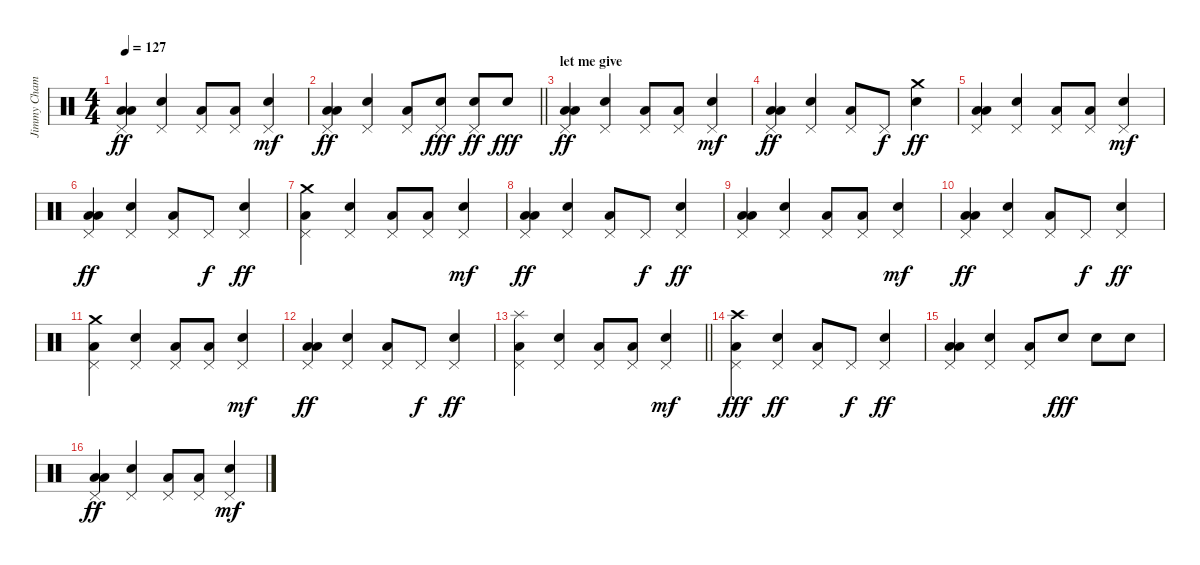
\track ("Jimmy Chamberlin" "Jimmy Cham") {instrument percussion}
\staff {score}
\articulation defaults
\ts (4 4)
\tempo 127
\clef neutral
\ks c
("Low Floor Tom (hit)" "Low Tom (hit)" "Pedal Hi-Hat (hit)").4{dy ff} ("Snare (hit) 2" "Pedal Hi-Hat (hit)").4 ("Low Floor Tom (hit)" "Pedal Hi-Hat (hit)").8 ("Low Floor Tom (hit)" "Pedal Hi-Hat (hit)").8 ("Snare (hit) 2" "Pedal Hi-Hat (hit)").4{dy mf} |
\barLineRight lightlight
("Low Floor Tom (hit)" "Low Tom (hit)" "Pedal Hi-Hat (hit)").4{dy ff} ("Snare (hit) 2" "Pedal Hi-Hat (hit)").4 ("Low Floor Tom (hit)" "Pedal Hi-Hat (hit)").8 ("Snare (hit) 2" "Pedal Hi-Hat (hit)").8{dy fff} ("Snare (hit) 2" "Pedal Hi-Hat (hit)").8{dy ff} "Snare (hit) 2".8{dy fff} |
\section ("" "let me give")
("Low Floor Tom (hit)" "Low Tom (hit)" "Pedal Hi-Hat (hit)").4{dy ff} ("Snare (hit) 2" "Pedal Hi-Hat (hit)").4 ("Low Floor Tom (hit)" "Pedal Hi-Hat (hit)").8 ("Low Floor Tom (hit)" "Pedal Hi-Hat (hit)").8 ("Snare (hit) 2" "Pedal Hi-Hat (hit)").4{dy mf} |
("Low Floor Tom (hit)" "Low Tom (hit)" "Pedal Hi-Hat (hit)").4{dy ff} ("Snare (hit) 2" "Pedal Hi-Hat (hit)").4 ("Low Floor Tom (hit)" "Pedal Hi-Hat (hit)").8 "Pedal Hi-Hat (hit)".8{dy f} ("Snare (hit) 2" "Crash medium (hit)").4{dy ff} |
("Low Floor Tom (hit)" "Low Tom (hit)" "Pedal Hi-Hat (hit)").4 ("Snare (hit) 2" "Pedal Hi-Hat (hit)").4 ("Low Floor Tom (hit)" "Pedal Hi-Hat (hit)").8 ("Low Floor Tom (hit)" "Pedal Hi-Hat (hit)").8 ("Snare (hit) 2" "Pedal Hi-Hat (hit)").4{dy mf} |
("Low Floor Tom (hit)" "Low Tom (hit)" "Pedal Hi-Hat (hit)").4{dy ff} ("Snare (hit) 2" "Pedal Hi-Hat (hit)").4 ("Low Floor Tom (hit)" "Pedal Hi-Hat (hit)").8 "Pedal Hi-Hat (hit)".8{dy f} ("Snare (hit) 2" "Pedal Hi-Hat (hit)").4{dy ff} |
("Crash medium (hit)" "Low Tom (hit)" "Pedal Hi-Hat (hit)").4 ("Snare (hit) 2" "Pedal Hi-Hat (hit)").4 ("Low Floor Tom (hit)" "Pedal Hi-Hat (hit)").8 ("Low Floor Tom (hit)" "Pedal Hi-Hat (hit)").8 ("Snare (hit) 2" "Pedal Hi-Hat (hit)").4{dy mf} |
("Low Floor Tom (hit)" "Low Tom (hit)" "Pedal Hi-Hat (hit)").4{dy ff} ("Snare (hit) 2" "Pedal Hi-Hat (hit)").4 ("Low Floor Tom (hit)" "Pedal Hi-Hat (hit)").8 "Pedal Hi-Hat (hit)".8{dy f} ("Snare (hit) 2" "Pedal Hi-Hat (hit)").4{dy ff} |
("Low Floor Tom (hit)" "Low Tom (hit)" "Pedal Hi-Hat (hit)").4 ("Snare (hit) 2" "Pedal Hi-Hat (hit)").4 ("Low Floor Tom (hit)" "Pedal Hi-Hat (hit)").8 ("Low Floor Tom (hit)" "Pedal Hi-Hat (hit)").8 ("Snare (hit) 2" "Pedal Hi-Hat (hit)").4{dy mf} |
("Low Floor Tom (hit)" "Low Tom (hit)" "Pedal Hi-Hat (hit)").4{dy ff} ("Snare (hit) 2" "Pedal Hi-Hat (hit)").4 ("Low Floor Tom (hit)" "Pedal Hi-Hat (hit)").8 "Pedal Hi-Hat (hit)".8{dy f} ("Snare (hit) 2" "Pedal Hi-Hat (hit)").4{dy ff} |
("Crash medium (hit)" "Low Tom (hit)" "Pedal Hi-Hat (hit)").4 ("Snare (hit) 2" "Pedal Hi-Hat (hit)").4 ("Low Floor Tom (hit)" "Pedal Hi-Hat (hit)").8 ("Low Floor Tom (hit)" "Pedal Hi-Hat (hit)").8 ("Snare (hit) 2" "Pedal Hi-Hat (hit)").4{dy mf} |
("Low Floor Tom (hit)" "Low Tom (hit)" "Pedal Hi-Hat (hit)").4{dy ff} ("Snare (hit) 2" "Pedal Hi-Hat (hit)").4 ("Low Floor Tom (hit)" "Pedal Hi-Hat (hit)").8 "Pedal Hi-Hat (hit)".8{dy f} ("Snare (hit) 2" "Pedal Hi-Hat (hit)").4{dy ff} |
\barLineRight lightlight
("Splash (hit)" "Low Tom (hit)" "Pedal Hi-Hat (hit)").4 ("Snare (hit) 2" "Pedal Hi-Hat (hit)").4 ("Low Floor Tom (hit)" "Pedal Hi-Hat (hit)").8 ("Low Floor Tom (hit)" "Pedal Hi-Hat (hit)").8 ("Snare (hit) 2" "Pedal Hi-Hat (hit)").4{dy mf} |
("Low Floor Tom (hit)" "Crash high (hit)" "Pedal Hi-Hat (hit)").4{dy fff} ("Snare (hit) 2" "Pedal Hi-Hat (hit)").4{dy ff} ("Low Floor Tom (hit)" "Pedal Hi-Hat (hit)").8 "Pedal Hi-Hat (hit)".8{dy f} ("Snare (hit) 2" "Pedal Hi-Hat (hit)").4{dy ff} |
("Low Floor Tom (hit)" "Low Tom (hit)" "Pedal Hi-Hat (hit)").4 ("Snare (hit) 2" "Pedal Hi-Hat (hit)").4 ("Low Floor Tom (hit)" "Pedal Hi-Hat (hit)").8 "Snare (hit) 2".8{dy fff} "Snare (hit) 2".8 "Snare (hit) 2".8 |
("Low Floor Tom (hit)" "Low Tom (hit)" "Pedal Hi-Hat (hit)").4{dy ff} ("Snare (hit) 2" "Pedal Hi-Hat (hit)").4 ("Low Floor Tom (hit)" "Pedal Hi-Hat (hit)").8 ("Low Floor Tom (hit)" "Pedal Hi-Hat (hit)").8 ("Snare (hit) 2" "Pedal Hi-Hat (hit)").4{dy mf}
